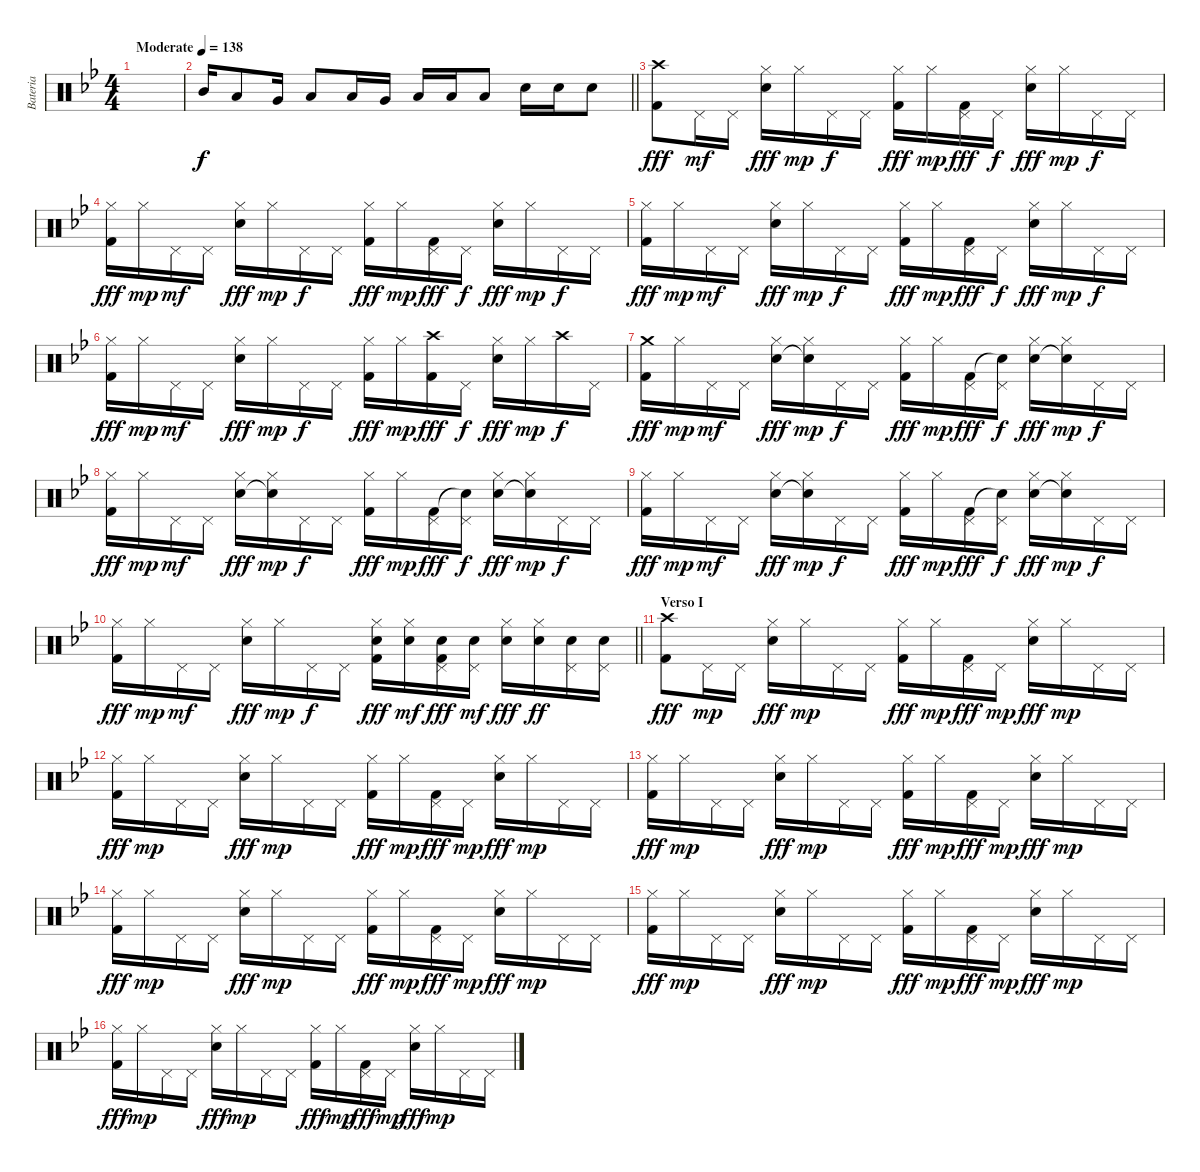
\track ("Bateria" "Bateria") {instrument percussion}
\staff {score}
\articulation defaults
\ts (4 4)
\tempo (138 "Moderate")
\clef neutral
\ks bb
|
\barLineRight lightlight "Mid Tom (hit)".16 "Low Tom (hit)".8 "Very Low Tom (hit)".16 "Low Tom (hit)".8 "Low Tom (hit)".16 "Very Low Tom (hit)".16 "Low Floor Tom (hit)".16 "Low Floor Tom (hit)".16 "Low Floor Tom (hit)".8 "Electric Snare (hit)".16 "Electric Snare (hit)".16 "Electric Snare (hit)".8
|
("Crash high (hit)" "Kick (hit) 2").8{dy fff} "Pedal Hi-Hat (hit)".16{dy mf} "Pedal Hi-Hat (hit)".16 ("Hi-Hat (closed)" "Snare (hit) 2").16{dy fff} "Hi-Hat (closed)".16{dy mp} "Pedal Hi-Hat (hit)".16{dy f} "Pedal Hi-Hat (hit)".16 ("Hi-Hat (closed)" "Kick (hit) 2").16{dy fff} "Hi-Hat (closed)".16{dy mp} ("Pedal Hi-Hat (hit)" "Kick (hit) 2").16{dy fff} "Pedal Hi-Hat (hit)".16{dy f} ("Hi-Hat (closed)" "Snare (hit) 2").16{dy fff} "Hi-Hat (closed)".16{dy mp} "Pedal Hi-Hat (hit)".16{dy f} "Pedal Hi-Hat (hit)".16 |
("Hi-Hat (closed)" "Kick (hit) 2").16{dy fff} "Hi-Hat (closed)".16{dy mp} "Pedal Hi-Hat (hit)".16{dy mf} "Pedal Hi-Hat (hit)".16 ("Hi-Hat (closed)" "Snare (hit) 2").16{dy fff} "Hi-Hat (closed)".16{dy mp} "Pedal Hi-Hat (hit)".16{dy f} "Pedal Hi-Hat (hit)".16 ("Hi-Hat (closed)" "Kick (hit) 2").16{dy fff} "Hi-Hat (closed)".16{dy mp} ("Pedal Hi-Hat (hit)" "Kick (hit) 2").16{dy fff} "Pedal Hi-Hat (hit)".16{dy f} ("Hi-Hat (closed)" "Snare (hit) 2").16{dy fff} "Hi-Hat (closed)".16{dy mp} "Pedal Hi-Hat (hit)".16{dy f} "Pedal Hi-Hat (hit)".16 |
("Hi-Hat (closed)" "Kick (hit) 2").16{dy fff} "Hi-Hat (closed)".16{dy mp} "Pedal Hi-Hat (hit)".16{dy mf} "Pedal Hi-Hat (hit)".16 ("Hi-Hat (closed)" "Snare (hit) 2").16{dy fff} "Hi-Hat (closed)".16{dy mp} "Pedal Hi-Hat (hit)".16{dy f} "Pedal Hi-Hat (hit)".16 ("Hi-Hat (closed)" "Kick (hit) 2").16{dy fff} "Hi-Hat (closed)".16{dy mp} ("Pedal Hi-Hat (hit)" "Kick (hit) 2").16{dy fff} "Pedal Hi-Hat (hit)".16{dy f} ("Hi-Hat (closed)" "Snare (hit) 2").16{dy fff} "Hi-Hat (closed)".16{dy mp} "Pedal Hi-Hat (hit)".16{dy f} "Pedal Hi-Hat (hit)".16 |
("Hi-Hat (closed)" "Kick (hit) 2").16{dy fff} "Hi-Hat (closed)".16{dy mp} "Pedal Hi-Hat (hit)".16{dy mf} "Pedal Hi-Hat (hit)".16 ("Hi-Hat (closed)" "Snare (hit) 2").16{dy fff} "Hi-Hat (closed)".16{dy mp} "Pedal Hi-Hat (hit)".16{dy f} "Pedal Hi-Hat (hit)".16 ("Hi-Hat (closed)" "Kick (hit) 2").16{dy fff} "Hi-Hat (closed)".16{dy mp} ("Crash high (hit)" "Kick (hit) 2").16{dy fff} "Pedal Hi-Hat (hit)".16{dy f} ("Hi-Hat (closed)" "Snare (hit) 2").16{dy fff} "Hi-Hat (closed)".16{dy mp} "Crash high (hit)".16{dy f} "Pedal Hi-Hat (hit)".16 |
("Crash medium (hit)" "Kick (hit) 2").16{dy fff} "Hi-Hat (closed)".16{dy mp} "Pedal Hi-Hat (hit)".16{dy mf} "Pedal Hi-Hat (hit)".16 ("Hi-Hat (closed)" "Snare (hit) 2").16{dy fff} ("Hi-Hat (closed)" "Snare (hit)"{t}).16{dy mp} "Pedal Hi-Hat (hit)".16{dy f} "Pedal Hi-Hat (hit)".16 ("Hi-Hat (closed)" "Kick (hit) 2").16{dy fff} "Hi-Hat (closed)".16{dy mp} ("Pedal Hi-Hat (hit)" "Kick (hit) 2").16{dy fff} ("Pedal Hi-Hat (hit)" "Snare (hit)"{t}).16{dy f} ("Hi-Hat (closed)" "Snare (hit) 2").16{dy fff} ("Hi-Hat (closed)" "Snare (hit)"{t}).16{dy mp} "Pedal Hi-Hat (hit)".16{dy f} "Pedal Hi-Hat (hit)".16 |
("Hi-Hat (closed)" "Kick (hit) 2").16{dy fff} "Hi-Hat (closed)".16{dy mp} "Pedal Hi-Hat (hit)".16{dy mf} "Pedal Hi-Hat (hit)".16 ("Hi-Hat (closed)" "Snare (hit) 2").16{dy fff} ("Hi-Hat (closed)" "Snare (hit)"{t}).16{dy mp} "Pedal Hi-Hat (hit)".16{dy f} "Pedal Hi-Hat (hit)".16 ("Hi-Hat (closed)" "Kick (hit) 2").16{dy fff} "Hi-Hat (closed)".16{dy mp} ("Pedal Hi-Hat (hit)" "Kick (hit) 2").16{dy fff} ("Pedal Hi-Hat (hit)" "Snare (hit)"{t}).16{dy f} ("Hi-Hat (closed)" "Snare (hit) 2").16{dy fff} ("Hi-Hat (closed)" "Snare (hit)"{t}).16{dy mp} "Pedal Hi-Hat (hit)".16{dy f} "Pedal Hi-Hat (hit)".16 |
("Hi-Hat (closed)" "Kick (hit) 2").16{dy fff} "Hi-Hat (closed)".16{dy mp} "Pedal Hi-Hat (hit)".16{dy mf} "Pedal Hi-Hat (hit)".16 ("Hi-Hat (closed)" "Snare (hit) 2").16{dy fff} ("Hi-Hat (closed)" "Snare (hit)"{t}).16{dy mp} "Pedal Hi-Hat (hit)".16{dy f} "Pedal Hi-Hat (hit)".16 ("Hi-Hat (closed)" "Kick (hit) 2").16{dy fff} "Hi-Hat (closed)".16{dy mp} ("Pedal Hi-Hat (hit)" "Kick (hit) 2").16{dy fff} ("Pedal Hi-Hat (hit)" "Snare (hit)"{t}).16{dy f} ("Hi-Hat (closed)" "Snare (hit) 2").16{dy fff} ("Hi-Hat (closed)" "Snare (hit)"{t}).16{dy mp} "Pedal Hi-Hat (hit)".16{dy f} "Pedal Hi-Hat (hit)".16 |
\barLineRight lightlight
("Hi-Hat (closed)" "Kick (hit) 2").16{dy fff} "Hi-Hat (closed)".16{dy mp} "Pedal Hi-Hat (hit)".16{dy mf} "Pedal Hi-Hat (hit)".16 ("Hi-Hat (closed)" "Snare (hit) 2").16{dy fff} "Hi-Hat (closed)".16{dy mp} "Pedal Hi-Hat (hit)".16{dy f} "Pedal Hi-Hat (hit)".16 ("Hi-Hat (closed)" "Snare (hit) 2" "Kick (hit) 2").16{dy fff} ("Hi-Hat (closed)" "Snare (hit) 2").16{dy mf} ("Pedal Hi-Hat (hit)" "Snare (hit) 2" "Kick (hit) 2").16{dy fff} ("Pedal Hi-Hat (hit)" "Snare (hit) 2").16{dy mf} ("Hi-Hat (closed)" "Electric Snare (hit)").16{dy fff} ("Hi-Hat (closed)" "Electric Snare (hit)").16{dy ff} ("Pedal Hi-Hat (hit)" "Electric Snare (hit)").16 ("Pedal Hi-Hat (hit)" "Electric Snare (hit)").16 |
\section ("" "Verso I")
("Crash high (hit)" "Kick (hit) 2").8{dy fff} "Pedal Hi-Hat (hit)".16{dy mp} "Pedal Hi-Hat (hit)".16 ("Hi-Hat (closed)" "Snare (hit) 2").16{dy fff} "Hi-Hat (closed)".16{dy mp} "Pedal Hi-Hat (hit)".16 "Pedal Hi-Hat (hit)".16 ("Hi-Hat (closed)" "Kick (hit) 2").16{dy fff} "Hi-Hat (closed)".16{dy mp} ("Pedal Hi-Hat (hit)" "Kick (hit) 2").16{dy fff} "Pedal Hi-Hat (hit)".16{dy mp} ("Hi-Hat (closed)" "Snare (hit) 2").16{dy fff} "Hi-Hat (closed)".16{dy mp} "Pedal Hi-Hat (hit)".16 "Pedal Hi-Hat (hit)".16 |
("Hi-Hat (closed)" "Kick (hit) 2").16{dy fff} "Hi-Hat (closed)".16{dy mp} "Pedal Hi-Hat (hit)".16 "Pedal Hi-Hat (hit)".16 ("Hi-Hat (closed)" "Snare (hit) 2").16{dy fff} "Hi-Hat (closed)".16{dy mp} "Pedal Hi-Hat (hit)".16 "Pedal Hi-Hat (hit)".16 ("Hi-Hat (closed)" "Kick (hit) 2").16{dy fff} "Hi-Hat (closed)".16{dy mp} ("Pedal Hi-Hat (hit)" "Kick (hit) 2").16{dy fff} "Pedal Hi-Hat (hit)".16{dy mp} ("Hi-Hat (closed)" "Snare (hit) 2").16{dy fff} "Hi-Hat (closed)".16{dy mp} "Pedal Hi-Hat (hit)".16 "Pedal Hi-Hat (hit)".16 |
("Hi-Hat (closed)" "Kick (hit) 2").16{dy fff} "Hi-Hat (closed)".16{dy mp} "Pedal Hi-Hat (hit)".16 "Pedal Hi-Hat (hit)".16 ("Hi-Hat (closed)" "Snare (hit) 2").16{dy fff} "Hi-Hat (closed)".16{dy mp} "Pedal Hi-Hat (hit)".16 "Pedal Hi-Hat (hit)".16 ("Hi-Hat (closed)" "Kick (hit) 2").16{dy fff} "Hi-Hat (closed)".16{dy mp} ("Pedal Hi-Hat (hit)" "Kick (hit) 2").16{dy fff} "Pedal Hi-Hat (hit)".16{dy mp} ("Hi-Hat (closed)" "Snare (hit) 2").16{dy fff} "Hi-Hat (closed)".16{dy mp} "Pedal Hi-Hat (hit)".16 "Pedal Hi-Hat (hit)".16 |
("Hi-Hat (closed)" "Kick (hit) 2").16{dy fff} "Hi-Hat (closed)".16{dy mp} "Pedal Hi-Hat (hit)".16 "Pedal Hi-Hat (hit)".16 ("Hi-Hat (closed)" "Snare (hit) 2").16{dy fff} "Hi-Hat (closed)".16{dy mp} "Pedal Hi-Hat (hit)".16 "Pedal Hi-Hat (hit)".16 ("Hi-Hat (closed)" "Kick (hit) 2").16{dy fff} "Hi-Hat (closed)".16{dy mp} ("Pedal Hi-Hat (hit)" "Kick (hit) 2").16{dy fff} "Pedal Hi-Hat (hit)".16{dy mp} ("Hi-Hat (closed)" "Snare (hit) 2").16{dy fff} "Hi-Hat (closed)".16{dy mp} "Pedal Hi-Hat (hit)".16 "Pedal Hi-Hat (hit)".16 |
("Hi-Hat (closed)" "Kick (hit) 2").16{dy fff} "Hi-Hat (closed)".16{dy mp} "Pedal Hi-Hat (hit)".16 "Pedal Hi-Hat (hit)".16 ("Hi-Hat (closed)" "Snare (hit) 2").16{dy fff} "Hi-Hat (closed)".16{dy mp} "Pedal Hi-Hat (hit)".16 "Pedal Hi-Hat (hit)".16 ("Hi-Hat (closed)" "Kick (hit) 2").16{dy fff} "Hi-Hat (closed)".16{dy mp} ("Pedal Hi-Hat (hit)" "Kick (hit) 2").16{dy fff} "Pedal Hi-Hat (hit)".16{dy mp} ("Hi-Hat (closed)" "Snare (hit) 2").16{dy fff} "Hi-Hat (closed)".16{dy mp} "Pedal Hi-Hat (hit)".16 "Pedal Hi-Hat (hit)".16 |
("Hi-Hat (closed)" "Kick (hit) 2").16{dy fff} "Hi-Hat (closed)".16{dy mp} "Pedal Hi-Hat (hit)".16 "Pedal Hi-Hat (hit)".16 ("Hi-Hat (closed)" "Snare (hit) 2").16{dy fff} "Hi-Hat (closed)".16{dy mp} "Pedal Hi-Hat (hit)".16 "Pedal Hi-Hat (hit)".16 ("Hi-Hat (closed)" "Kick (hit) 2").16{dy fff} "Hi-Hat (closed)".16{dy mp} ("Pedal Hi-Hat (hit)" "Kick (hit) 2").16{dy fff} "Pedal Hi-Hat (hit)".16{dy mp} ("Hi-Hat (closed)" "Snare (hit) 2").16{dy fff} "Hi-Hat (closed)".16{dy mp} "Pedal Hi-Hat (hit)".16 "Pedal Hi-Hat (hit)".16
